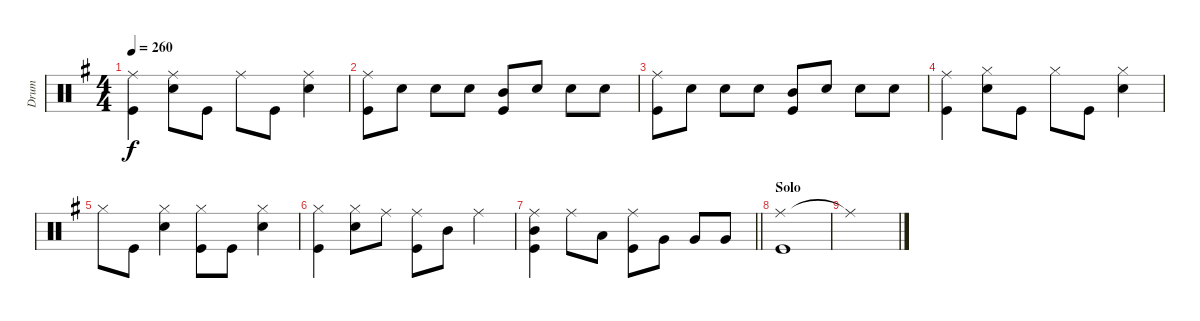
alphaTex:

\track ("Drum" "Drum") {instrument percussion}
\staff {score}
\articulation defaults
\ts (4 4)
\tempo 260
\clef neutral
\ks g
("Ride (middle)" "Kick (hit)").4{dy f} ("Ride (middle)" "Snare (hit) 2").8 "Kick (hit)".8 "Ride (middle)".8 "Kick (hit)".8 ("Ride (middle)" "Snare (hit) 2").4 |
("Ride (middle)" "Kick (hit)").8 "Snare (hit) 2".8 "Snare (hit) 2".8 "Snare (hit) 2".8 ("Mid Tom (hit)" "Kick (hit)").8 "Snare (hit) 2".8 "Snare (hit) 2".8 "Snare (hit) 2".8 |
("Ride (middle)" "Kick (hit)").8 "Snare (hit) 2".8 "Snare (hit) 2".8 "Snare (hit) 2".8 ("Mid Tom (hit)" "Kick (hit)").8 "Snare (hit) 2".8 "Snare (hit) 2".8 "Snare (hit) 2".8 |
("Ride (middle)" "Kick (hit)").4 ("Hi-Hat (closed)" "Snare (hit) 2").8 "Kick (hit)".8 "Hi-Hat (closed)".8 "Kick (hit)".8 ("Hi-Hat (closed)" "Snare (hit) 2").4 |
"Hi-Hat (closed)".8 "Kick (hit)".8 ("Hi-Hat (closed)" "Snare (hit) 2").4 ("Hi-Hat (closed)" "Kick (hit)").8 "Kick (hit)".8 ("Hi-Hat (closed)" "Snare (hit) 2").4 |
("Hi-Hat (closed)" "Kick (hit)").4 ("Hi-Hat (closed)" "Snare (hit) 2").8 "Ride (middle)".8 ("Kick (hit)" "Ride (middle)").8 "Mid Tom (hit)".8 "Ride (middle)".4 |
\barLineRight lightlight
("Ride (middle)" "Mid Tom (hit)" "Kick (hit)").4 "Ride (middle)".8 "Low Tom (hit)".8 ("Ride (middle)" "Kick (hit)").8 "Very Low Tom (hit)".8 "Very Low Tom (hit)".8 "Very Low Tom (hit)".8 |
\section ("" "Solo")
("Ride (middle)" "Kick (hit)").1 |
"Ride (middle)"{t}.1
